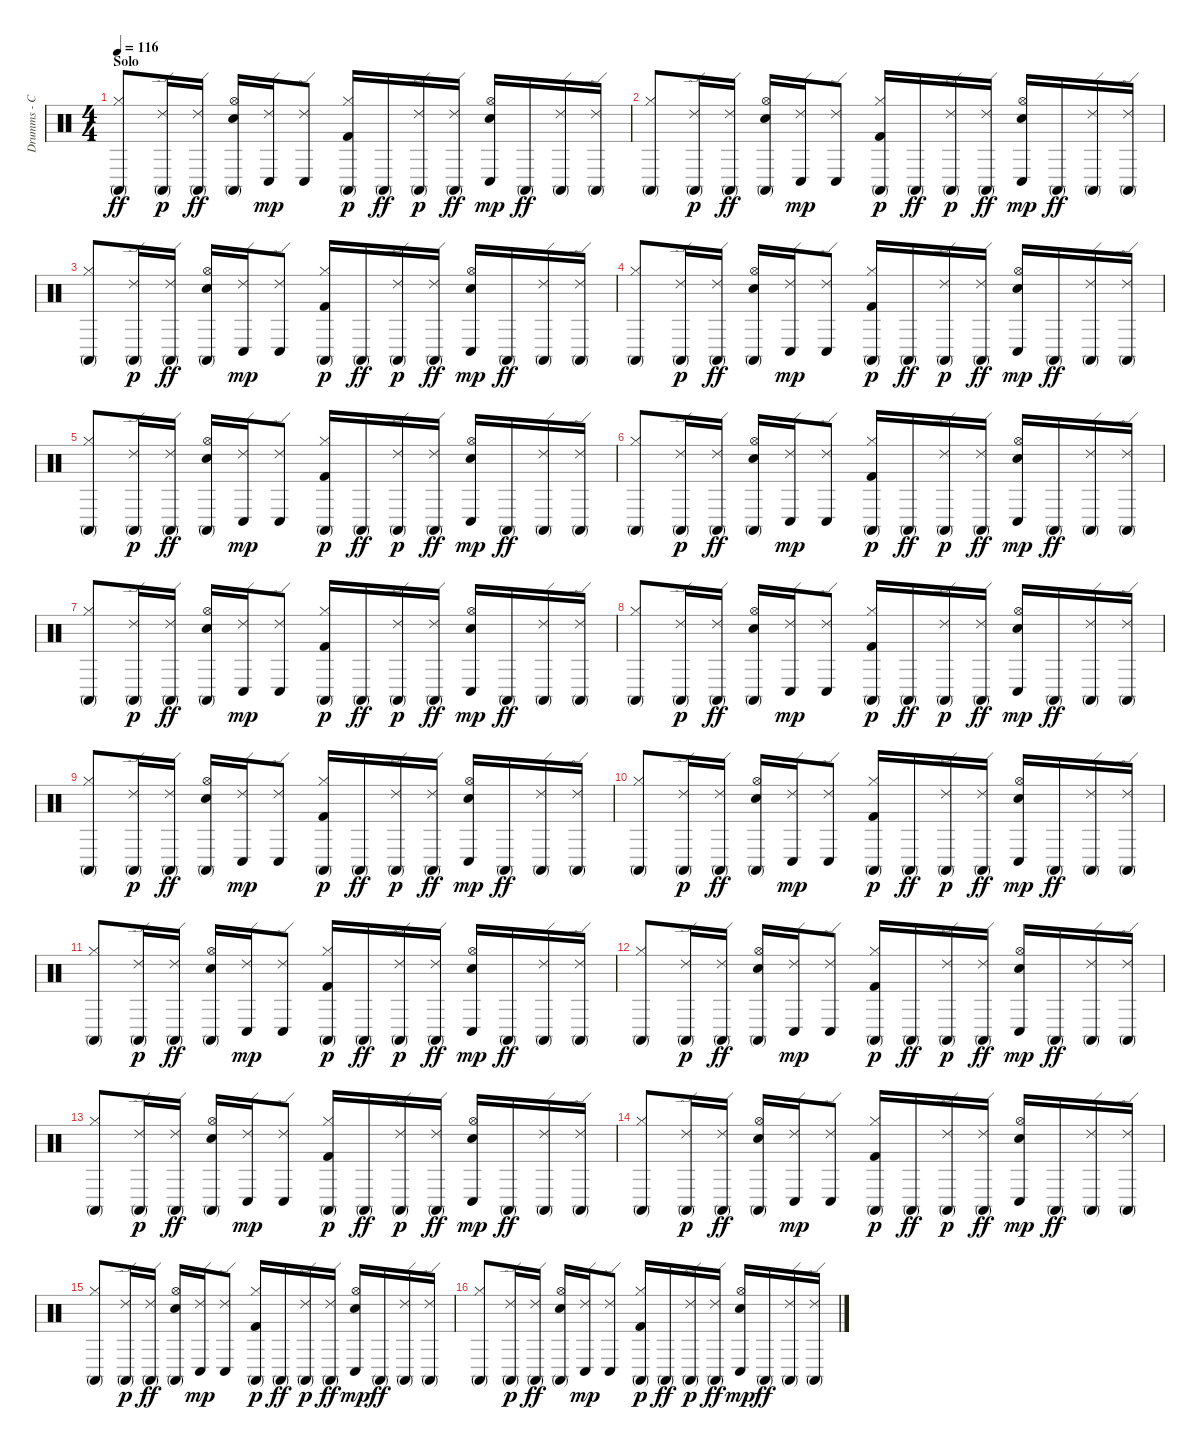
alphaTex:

\track ("Drumms - Conga" "Drumms - C") {instrument percussion}
\staff {score}
\articulation defaults
\ts (4 4)
\section ("" "Solo")
\tempo 116
\clef neutral
\ks c
("Conga high (mute)" "Hi-Hat (closed)").8{dy ff} ("Conga high (mute)" "Ride (edge) 2").16{dy p} ("Conga high (mute)" "Ride (edge) 2").16{dy ff} ("Conga high (mute)" "Snare (hit) 2" "Hi-Hat (open)").16 ("Conga low (hit)" "Ride (edge) 2").16{dy mp} ("Conga low (hit)" "Ride (edge) 2").8 ("Conga high (mute)" "Kick (hit) 2" "Hi-Hat (closed)").16{dy p} "Conga high (mute)".16{dy ff} ("Conga high (mute)" "Ride (edge) 2").16{dy p} ("Conga high (mute)" "Ride (edge) 2").16{dy ff} ("Conga low (hit)" "Snare (hit) 2" "Hi-Hat (open)").16{dy mp} "Conga high (mute)".16{dy ff} ("Conga high (mute)" "Ride (edge) 2").16 ("Conga high (mute)" "Ride (edge) 2").16 |
("Conga high (mute)" "Hi-Hat (closed)").8 ("Conga high (mute)" "Ride (edge) 2").16{dy p} ("Conga high (mute)" "Ride (edge) 2").16{dy ff} ("Conga high (mute)" "Snare (hit) 2" "Hi-Hat (open)").16 ("Conga low (hit)" "Ride (edge) 2").16{dy mp} ("Conga low (hit)" "Ride (edge) 2").8 ("Conga high (mute)" "Kick (hit) 2" "Hi-Hat (closed)").16{dy p} "Conga high (mute)".16{dy ff} ("Conga high (mute)" "Ride (edge) 2").16{dy p} ("Conga high (mute)" "Ride (edge) 2").16{dy ff} ("Conga low (hit)" "Snare (hit) 2" "Hi-Hat (open)").16{dy mp} "Conga high (mute)".16{dy ff} ("Conga high (mute)" "Ride (edge) 2").16 ("Conga high (mute)" "Ride (edge) 2").16 |
("Conga high (mute)" "Hi-Hat (closed)").8 ("Conga high (mute)" "Ride (edge) 2").16{dy p} ("Conga high (mute)" "Ride (edge) 2").16{dy ff} ("Conga high (mute)" "Snare (hit) 2" "Hi-Hat (open)").16 ("Conga low (hit)" "Ride (edge) 2").16{dy mp} ("Conga low (hit)" "Ride (edge) 2").8 ("Conga high (mute)" "Kick (hit) 2" "Hi-Hat (closed)").16{dy p} "Conga high (mute)".16{dy ff} ("Conga high (mute)" "Ride (edge) 2").16{dy p} ("Conga high (mute)" "Ride (edge) 2").16{dy ff} ("Conga low (hit)" "Snare (hit) 2" "Hi-Hat (open)").16{dy mp} "Conga high (mute)".16{dy ff} ("Conga high (mute)" "Ride (edge) 2").16 ("Conga high (mute)" "Ride (edge) 2").16 |
("Conga high (mute)" "Hi-Hat (closed)").8 ("Conga high (mute)" "Ride (edge) 2").16{dy p} ("Conga high (mute)" "Ride (edge) 2").16{dy ff} ("Conga high (mute)" "Snare (hit) 2" "Hi-Hat (open)").16 ("Conga low (hit)" "Ride (edge) 2").16{dy mp} ("Conga low (hit)" "Ride (edge) 2").8 ("Conga high (mute)" "Kick (hit) 2" "Hi-Hat (closed)").16{dy p} "Conga high (mute)".16{dy ff} ("Conga high (mute)" "Ride (edge) 2").16{dy p} ("Conga high (mute)" "Ride (edge) 2").16{dy ff} ("Conga low (hit)" "Snare (hit) 2" "Hi-Hat (open)").16{dy mp} "Conga high (mute)".16{dy ff} ("Conga high (mute)" "Ride (edge) 2").16 ("Conga high (mute)" "Ride (edge) 2").16 |
("Conga high (mute)" "Hi-Hat (closed)").8 ("Conga high (mute)" "Ride (edge) 2").16{dy p} ("Conga high (mute)" "Ride (edge) 2").16{dy ff} ("Conga high (mute)" "Snare (hit) 2" "Hi-Hat (open)").16 ("Conga low (hit)" "Ride (edge) 2").16{dy mp} ("Conga low (hit)" "Ride (edge) 2").8 ("Conga high (mute)" "Kick (hit) 2" "Hi-Hat (closed)").16{dy p} "Conga high (mute)".16{dy ff} ("Conga high (mute)" "Ride (edge) 2").16{dy p} ("Conga high (mute)" "Ride (edge) 2").16{dy ff} ("Conga low (hit)" "Snare (hit) 2" "Hi-Hat (open)").16{dy mp} "Conga high (mute)".16{dy ff} ("Conga high (mute)" "Ride (edge) 2").16 ("Conga high (mute)" "Ride (edge) 2").16 |
("Conga high (mute)" "Hi-Hat (closed)").8 ("Conga high (mute)" "Ride (edge) 2").16{dy p} ("Conga high (mute)" "Ride (edge) 2").16{dy ff} ("Conga high (mute)" "Snare (hit) 2" "Hi-Hat (open)").16 ("Conga low (hit)" "Ride (edge) 2").16{dy mp} ("Conga low (hit)" "Ride (edge) 2").8 ("Conga high (mute)" "Kick (hit) 2" "Hi-Hat (closed)").16{dy p} "Conga high (mute)".16{dy ff} ("Conga high (mute)" "Ride (edge) 2").16{dy p} ("Conga high (mute)" "Ride (edge) 2").16{dy ff} ("Conga low (hit)" "Snare (hit) 2" "Hi-Hat (open)").16{dy mp} "Conga high (mute)".16{dy ff} ("Conga high (mute)" "Ride (edge) 2").16 ("Conga high (mute)" "Ride (edge) 2").16 |
("Conga high (mute)" "Hi-Hat (closed)").8 ("Conga high (mute)" "Ride (edge) 2").16{dy p} ("Conga high (mute)" "Ride (edge) 2").16{dy ff} ("Conga high (mute)" "Snare (hit) 2" "Hi-Hat (open)").16 ("Conga low (hit)" "Ride (edge) 2").16{dy mp} ("Conga low (hit)" "Ride (edge) 2").8 ("Conga high (mute)" "Kick (hit) 2" "Hi-Hat (closed)").16{dy p} "Conga high (mute)".16{dy ff} ("Conga high (mute)" "Ride (edge) 2").16{dy p} ("Conga high (mute)" "Ride (edge) 2").16{dy ff} ("Conga low (hit)" "Snare (hit) 2" "Hi-Hat (open)").16{dy mp} "Conga high (mute)".16{dy ff} ("Conga high (mute)" "Ride (edge) 2").16 ("Conga high (mute)" "Ride (edge) 2").16 |
("Conga high (mute)" "Hi-Hat (closed)").8 ("Conga high (mute)" "Ride (edge) 2").16{dy p} ("Conga high (mute)" "Ride (edge) 2").16{dy ff} ("Conga high (mute)" "Snare (hit) 2" "Hi-Hat (open)").16 ("Conga low (hit)" "Ride (edge) 2").16{dy mp} ("Conga low (hit)" "Ride (edge) 2").8 ("Conga high (mute)" "Kick (hit) 2" "Hi-Hat (closed)").16{dy p} "Conga high (mute)".16{dy ff} ("Conga high (mute)" "Ride (edge) 2").16{dy p} ("Conga high (mute)" "Ride (edge) 2").16{dy ff} ("Conga low (hit)" "Snare (hit) 2" "Hi-Hat (open)").16{dy mp} "Conga high (mute)".16{dy ff} ("Conga high (mute)" "Ride (edge) 2").16 ("Conga high (mute)" "Ride (edge) 2").16 |
("Conga high (mute)" "Hi-Hat (closed)").8 ("Conga high (mute)" "Ride (edge) 2").16{dy p} ("Conga high (mute)" "Ride (edge) 2").16{dy ff} ("Conga high (mute)" "Snare (hit) 2" "Hi-Hat (open)").16 ("Conga low (hit)" "Ride (edge) 2").16{dy mp} ("Conga low (hit)" "Ride (edge) 2").8 ("Conga high (mute)" "Kick (hit) 2" "Hi-Hat (closed)").16{dy p} "Conga high (mute)".16{dy ff} ("Conga high (mute)" "Ride (edge) 2").16{dy p} ("Conga high (mute)" "Ride (edge) 2").16{dy ff} ("Conga low (hit)" "Snare (hit) 2" "Hi-Hat (open)").16{dy mp} "Conga high (mute)".16{dy ff} ("Conga high (mute)" "Ride (edge) 2").16 ("Conga high (mute)" "Ride (edge) 2").16 |
("Conga high (mute)" "Hi-Hat (closed)").8 ("Conga high (mute)" "Ride (edge) 2").16{dy p} ("Conga high (mute)" "Ride (edge) 2").16{dy ff} ("Conga high (mute)" "Snare (hit) 2" "Hi-Hat (open)").16 ("Conga low (hit)" "Ride (edge) 2").16{dy mp} ("Conga low (hit)" "Ride (edge) 2").8 ("Conga high (mute)" "Kick (hit) 2" "Hi-Hat (closed)").16{dy p} "Conga high (mute)".16{dy ff} ("Conga high (mute)" "Ride (edge) 2").16{dy p} ("Conga high (mute)" "Ride (edge) 2").16{dy ff} ("Conga low (hit)" "Snare (hit) 2" "Hi-Hat (open)").16{dy mp} "Conga high (mute)".16{dy ff} ("Conga high (mute)" "Ride (edge) 2").16 ("Conga high (mute)" "Ride (edge) 2").16 |
("Conga high (mute)" "Hi-Hat (closed)").8 ("Conga high (mute)" "Ride (edge) 2").16{dy p} ("Conga high (mute)" "Ride (edge) 2").16{dy ff} ("Conga high (mute)" "Snare (hit) 2" "Hi-Hat (open)").16 ("Conga low (hit)" "Ride (edge) 2").16{dy mp} ("Conga low (hit)" "Ride (edge) 2").8 ("Conga high (mute)" "Kick (hit) 2" "Hi-Hat (closed)").16{dy p} "Conga high (mute)".16{dy ff} ("Conga high (mute)" "Ride (edge) 2").16{dy p} ("Conga high (mute)" "Ride (edge) 2").16{dy ff} ("Conga low (hit)" "Snare (hit) 2" "Hi-Hat (open)").16{dy mp} "Conga high (mute)".16{dy ff} ("Conga high (mute)" "Ride (edge) 2").16 ("Conga high (mute)" "Ride (edge) 2").16 |
("Conga high (mute)" "Hi-Hat (closed)").8 ("Conga high (mute)" "Ride (edge) 2").16{dy p} ("Conga high (mute)" "Ride (edge) 2").16{dy ff} ("Conga high (mute)" "Snare (hit) 2" "Hi-Hat (open)").16 ("Conga low (hit)" "Ride (edge) 2").16{dy mp} ("Conga low (hit)" "Ride (edge) 2").8 ("Conga high (mute)" "Kick (hit) 2" "Hi-Hat (closed)").16{dy p} "Conga high (mute)".16{dy ff} ("Conga high (mute)" "Ride (edge) 2").16{dy p} ("Conga high (mute)" "Ride (edge) 2").16{dy ff} ("Conga low (hit)" "Snare (hit) 2" "Hi-Hat (open)").16{dy mp} "Conga high (mute)".16{dy ff} ("Conga high (mute)" "Ride (edge) 2").16 ("Conga high (mute)" "Ride (edge) 2").16 |
("Conga high (mute)" "Hi-Hat (closed)").8 ("Conga high (mute)" "Ride (edge) 2").16{dy p} ("Conga high (mute)" "Ride (edge) 2").16{dy ff} ("Conga high (mute)" "Snare (hit) 2" "Hi-Hat (open)").16 ("Conga low (hit)" "Ride (edge) 2").16{dy mp} ("Conga low (hit)" "Ride (edge) 2").8 ("Conga high (mute)" "Kick (hit) 2" "Hi-Hat (closed)").16{dy p} "Conga high (mute)".16{dy ff} ("Conga high (mute)" "Ride (edge) 2").16{dy p} ("Conga high (mute)" "Ride (edge) 2").16{dy ff} ("Conga low (hit)" "Snare (hit) 2" "Hi-Hat (open)").16{dy mp} "Conga high (mute)".16{dy ff} ("Conga high (mute)" "Ride (edge) 2").16 ("Conga high (mute)" "Ride (edge) 2").16 |
("Conga high (mute)" "Hi-Hat (closed)").8 ("Conga high (mute)" "Ride (edge) 2").16{dy p} ("Conga high (mute)" "Ride (edge) 2").16{dy ff} ("Conga high (mute)" "Snare (hit) 2" "Hi-Hat (open)").16 ("Conga low (hit)" "Ride (edge) 2").16{dy mp} ("Conga low (hit)" "Ride (edge) 2").8 ("Conga high (mute)" "Kick (hit) 2" "Hi-Hat (closed)").16{dy p} "Conga high (mute)".16{dy ff} ("Conga high (mute)" "Ride (edge) 2").16{dy p} ("Conga high (mute)" "Ride (edge) 2").16{dy ff} ("Conga low (hit)" "Snare (hit) 2" "Hi-Hat (open)").16{dy mp} "Conga high (mute)".16{dy ff} ("Conga high (mute)" "Ride (edge) 2").16 ("Conga high (mute)" "Ride (edge) 2").16 |
("Conga high (mute)" "Hi-Hat (closed)").8 ("Conga high (mute)" "Ride (edge) 2").16{dy p} ("Conga high (mute)" "Ride (edge) 2").16{dy ff} ("Conga high (mute)" "Snare (hit) 2" "Hi-Hat (open)").16 ("Conga low (hit)" "Ride (edge) 2").16{dy mp} ("Conga low (hit)" "Ride (edge) 2").8 ("Conga high (mute)" "Kick (hit) 2" "Hi-Hat (closed)").16{dy p} "Conga high (mute)".16{dy ff} ("Conga high (mute)" "Ride (edge) 2").16{dy p} ("Conga high (mute)" "Ride (edge) 2").16{dy ff} ("Conga low (hit)" "Snare (hit) 2" "Hi-Hat (open)").16{dy mp} "Conga high (mute)".16{dy ff} ("Conga high (mute)" "Ride (edge) 2").16 ("Conga high (mute)" "Ride (edge) 2").16 |
("Conga high (mute)" "Hi-Hat (closed)").8 ("Conga high (mute)" "Ride (edge) 2").16{dy p} ("Conga high (mute)" "Ride (edge) 2").16{dy ff} ("Conga high (mute)" "Snare (hit) 2" "Hi-Hat (open)").16 ("Conga low (hit)" "Ride (edge) 2").16{dy mp} ("Conga low (hit)" "Ride (edge) 2").8 ("Conga high (mute)" "Kick (hit) 2" "Hi-Hat (closed)").16{dy p} "Conga high (mute)".16{dy ff} ("Conga high (mute)" "Ride (edge) 2").16{dy p} ("Conga high (mute)" "Ride (edge) 2").16{dy ff} ("Conga low (hit)" "Snare (hit) 2" "Hi-Hat (open)").16{dy mp} "Conga high (mute)".16{dy ff} ("Conga high (mute)" "Ride (edge) 2").16 ("Conga high (mute)" "Ride (edge) 2").16
